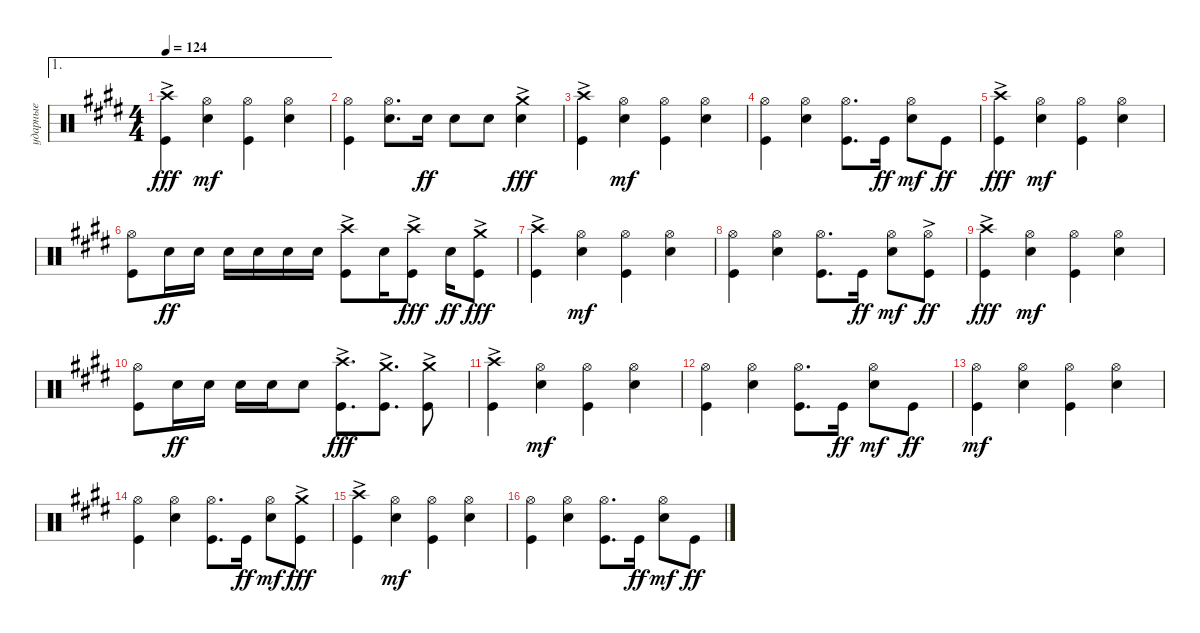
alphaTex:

\track ("ударные" "ударные") {instrument percussion}
\staff {score}
\articulation defaults
\ae 1
\ts (4 4)
\tempo 124
\clef neutral
\ks e
("Kick (hit)" "Crash high (hit)"{ac}).4{dy fff} ("Snare (hit) 2" "Hi-Hat (open)").4{dy mf} ("Kick (hit)" "Hi-Hat (open)").4 ("Snare (hit) 2" "Hi-Hat (open)").4 |
("Kick (hit)" "Hi-Hat (open)").4 ("Snare (hit) 2" "Hi-Hat (open)").8{d} "Snare (hit) 2".16{dy ff} "Snare (hit) 2".8 "Snare (hit) 2".8 ("Snare (hit) 2" "Crash medium (hit)"{ac}).4{dy fff} |
("Kick (hit)" "Crash high (hit)"{ac}).4 ("Snare (hit) 2" "Hi-Hat (open)").4{dy mf} ("Kick (hit)" "Hi-Hat (open)").4 ("Snare (hit) 2" "Hi-Hat (open)").4 |
("Kick (hit)" "Hi-Hat (open)").4 ("Snare (hit) 2" "Hi-Hat (open)").4 ("Kick (hit)" "Hi-Hat (open)").8{d} "Kick (hit)".16{dy ff} ("Snare (hit) 2" "Hi-Hat (open)").8{dy mf} "Kick (hit)".8{dy ff} |
("Kick (hit)" "Crash high (hit)"{ac}).4{dy fff} ("Snare (hit) 2" "Hi-Hat (open)").4{dy mf} ("Kick (hit)" "Hi-Hat (open)").4 ("Snare (hit) 2" "Hi-Hat (open)").4 |
("Kick (hit)" "Hi-Hat (open)").8 "Snare (hit) 2".16{dy ff} "Snare (hit) 2".16 "Snare (hit) 2".16 "Snare (hit) 2".16 "Snare (hit) 2".16 "Snare (hit) 2".16 ("Crash high (hit)"{ac} "Kick (hit)").8 "Snare (hit) 2".16 ("Kick (hit)" "Crash high (hit)"{ac}).8{dy fff} "Snare (hit) 2".16{dy ff} ("Kick (hit)" "Crash medium (hit)"{ac}).8{dy fff} |
("Kick (hit)" "Crash high (hit)"{ac}).4 ("Snare (hit) 2" "Hi-Hat (open)").4{dy mf} ("Kick (hit)" "Hi-Hat (open)").4 ("Snare (hit) 2" "Hi-Hat (open)").4 |
("Kick (hit)" "Hi-Hat (open)").4 ("Snare (hit) 2" "Hi-Hat (open)").4 ("Kick (hit)" "Hi-Hat (open)").8{d} "Kick (hit)".16{dy ff} ("Snare (hit) 2" "Hi-Hat (open)").8{dy mf} ("Kick (hit)" "Hi-Hat (open)"{ac}).8{dy ff} |
("Kick (hit)" "Crash high (hit)"{ac}).4{dy fff} ("Snare (hit) 2" "Hi-Hat (open)").4{dy mf} ("Kick (hit)" "Hi-Hat (open)").4 ("Snare (hit) 2" "Hi-Hat (open)").4 |
("Kick (hit)" "Hi-Hat (open)").8 "Snare (hit) 2".16{dy ff} "Snare (hit) 2".16 "Snare (hit) 2".16 "Snare (hit) 2".16 "Snare (hit) 2".8 ("Kick (hit)" "Crash high (hit)"{ac}).8{d dy fff} ("Kick (hit)" "Crash medium (hit)"{ac}).8{d} ("Kick (hit)" "Crash medium (hit)"{ac}).8 |
("Kick (hit)" "Crash high (hit)"{ac}).4 ("Snare (hit) 2" "Hi-Hat (open)").4{dy mf} ("Kick (hit)" "Hi-Hat (open)").4 ("Snare (hit) 2" "Hi-Hat (open)").4 |
("Kick (hit)" "Hi-Hat (open)").4 ("Snare (hit) 2" "Hi-Hat (open)").4 ("Kick (hit)" "Hi-Hat (open)").8{d} "Kick (hit)".16{dy ff} ("Snare (hit) 2" "Hi-Hat (open)").8{dy mf} "Kick (hit)".8{dy ff} |
("Kick (hit)" "Hi-Hat (open)").4{dy mf} ("Snare (hit) 2" "Hi-Hat (open)").4 ("Kick (hit)" "Hi-Hat (open)").4 ("Snare (hit) 2" "Hi-Hat (open)").4 |
("Kick (hit)" "Hi-Hat (open)").4 ("Snare (hit) 2" "Hi-Hat (open)").4 ("Kick (hit)" "Hi-Hat (open)").8{d} "Kick (hit)".16{dy ff} ("Snare (hit) 2" "Hi-Hat (open)").8{dy mf} ("Kick (hit)" "Crash medium (hit)"{ac}).8{dy fff} |
("Kick (hit)" "Crash high (hit)"{ac}).4 ("Snare (hit) 2" "Hi-Hat (open)").4{dy mf} ("Kick (hit)" "Hi-Hat (open)").4 ("Snare (hit) 2" "Hi-Hat (open)").4 |
("Kick (hit)" "Hi-Hat (open)").4 ("Snare (hit) 2" "Hi-Hat (open)").4 ("Kick (hit)" "Hi-Hat (open)").8{d} "Kick (hit)".16{dy ff} ("Snare (hit) 2" "Hi-Hat (open)").8{dy mf} "Kick (hit)".8{dy ff}
